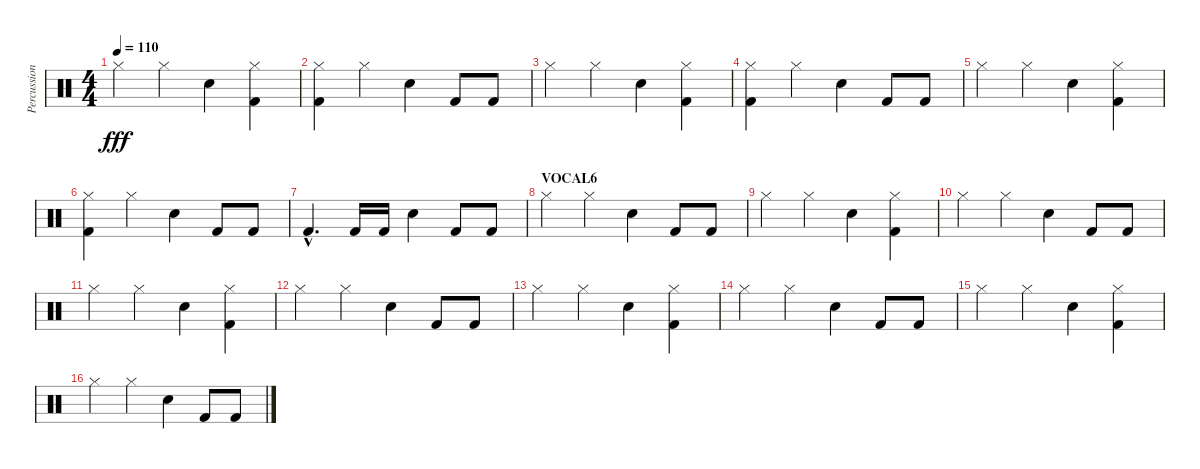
\track ("Percussion" "Percussion") {instrument percussion}
\staff {score}
\articulation defaults
\ts (4 4)
\tempo 110
\clef neutral
\ks c "Hi-Hat (closed)".4{dy fff} "Hi-Hat (closed)".4 "Electric Snare (hit)".4
("Kick (hit) 2" "Hi-Hat (closed)").4 |
("Kick (hit) 2" "Hi-Hat (closed)").4 "Hi-Hat (closed)".4 "Electric Snare (hit)".4 "Kick (hit) 2".8 "Kick (hit) 2".8 |
"Hi-Hat (closed)".4 "Hi-Hat (closed)".4 "Electric Snare (hit)".4 ("Kick (hit) 2" "Hi-Hat (closed)").4 |
("Kick (hit) 2" "Hi-Hat (closed)").4 "Hi-Hat (closed)".4 "Electric Snare (hit)".4 "Kick (hit) 2".8 "Kick (hit) 2".8 |
"Hi-Hat (closed)".4 "Hi-Hat (closed)".4 "Electric Snare (hit)".4 ("Kick (hit) 2" "Hi-Hat (closed)").4 |
("Kick (hit) 2" "Hi-Hat (closed)").4 "Hi-Hat (closed)".4 "Electric Snare (hit)".4 "Kick (hit) 2".8 "Kick (hit) 2".8 |
"Kick (hit) 2"{hac}.4{d} "Kick (hit) 2".16 "Kick (hit) 2".16 "Electric Snare (hit)".4 "Kick (hit) 2".8 "Kick (hit) 2".8 |
\section ("" "VOCAL6")
"Hi-Hat (closed)".4 "Hi-Hat (closed)".4 "Electric Snare (hit)".4 "Kick (hit) 2".8 "Kick (hit) 2".8 |
"Hi-Hat (closed)".4 "Hi-Hat (closed)".4 "Electric Snare (hit)".4 ("Kick (hit) 2" "Hi-Hat (closed)").4 |
"Hi-Hat (closed)".4 "Hi-Hat (closed)".4 "Electric Snare (hit)".4 "Kick (hit) 2".8 "Kick (hit) 2".8 |
"Hi-Hat (closed)".4 "Hi-Hat (closed)".4 "Electric Snare (hit)".4 ("Kick (hit) 2" "Hi-Hat (closed)").4 |
"Hi-Hat (closed)".4 "Hi-Hat (closed)".4 "Electric Snare (hit)".4 "Kick (hit) 2".8 "Kick (hit) 2".8 |
"Hi-Hat (closed)".4 "Hi-Hat (closed)".4 "Electric Snare (hit)".4 ("Kick (hit) 2" "Hi-Hat (closed)").4 |
"Hi-Hat (closed)".4 "Hi-Hat (closed)".4 "Electric Snare (hit)".4 "Kick (hit) 2".8 "Kick (hit) 2".8 |
"Hi-Hat (closed)".4 "Hi-Hat (closed)".4 "Electric Snare (hit)".4 ("Kick (hit) 2" "Hi-Hat (closed)").4 |
"Hi-Hat (closed)".4 "Hi-Hat (closed)".4 "Electric Snare (hit)".4 "Kick (hit) 2".8 "Kick (hit) 2".8
